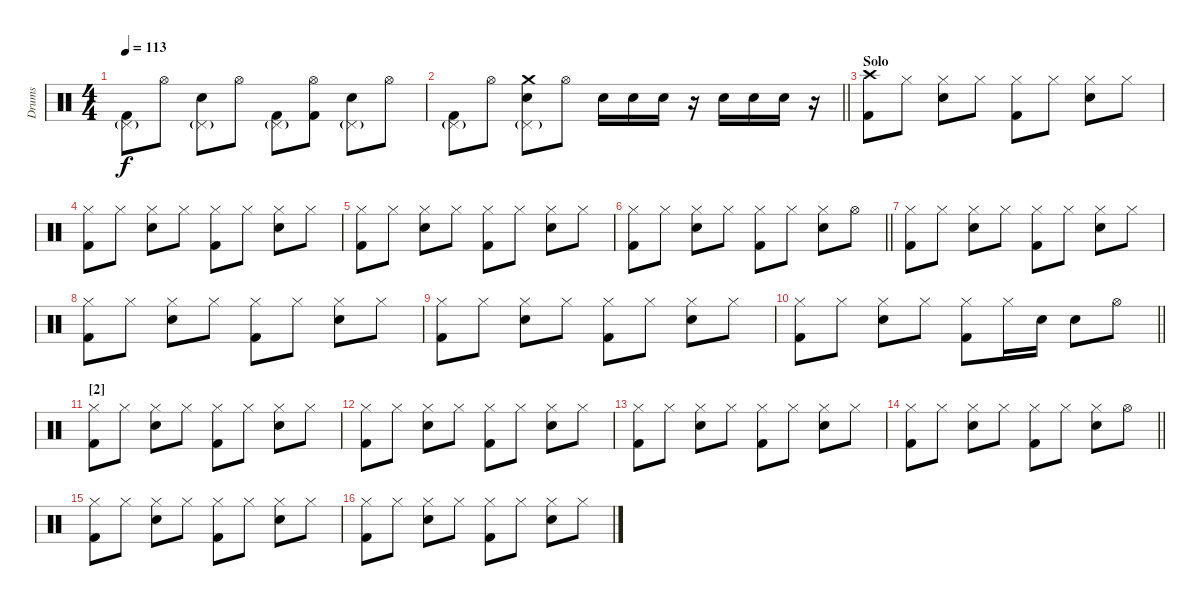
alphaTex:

\track ("Drums" "Drums") {instrument percussion}
\staff {score}
\articulation defaults
\ts (4 4)
\tempo 113
\clef neutral
\ks c
("Kick (hit) 2" "Pedal Hi-Hat (hit)"{g}).8{dy f} "Hi-Hat (open)".8 ("Electric Snare (hit)" "Pedal Hi-Hat (hit)"{g}).8 "Hi-Hat (open)".8 ("Kick (hit) 2" "Pedal Hi-Hat (hit)"{g}).8 ("Hi-Hat (open)" "Kick (hit) 2").8 ("Electric Snare (hit)" "Pedal Hi-Hat (hit)"{g}).8 "Hi-Hat (open)".8 |
\barLineRight lightlight
("Kick (hit) 2" "Pedal Hi-Hat (hit)"{g}).8 "Hi-Hat (open)".8 ("Crash medium (hit)" "Electric Snare (hit)" "Pedal Hi-Hat (hit)"{g}).8 "Hi-Hat (open)".8 "Electric Snare (hit)".16 "Electric Snare (hit)".16 "Electric Snare (hit)".16 r.16 "Electric Snare (hit)".16 "Electric Snare (hit)".16 "Electric Snare (hit)".16 r.16 |
\section ("" "Solo")
("Crash high (hit)" "Kick (hit) 2").8 "Hi-Hat (closed)".8 ("Hi-Hat (closed)" "Electric Snare (hit)").8 "Hi-Hat (closed)".8 ("Hi-Hat (closed)" "Kick (hit) 2").8 "Hi-Hat (closed)".8 ("Hi-Hat (closed)" "Electric Snare (hit)").8 "Hi-Hat (closed)".8 |
("Hi-Hat (closed)" "Kick (hit) 2").8 "Hi-Hat (closed)".8 ("Hi-Hat (closed)" "Electric Snare (hit)").8 "Hi-Hat (closed)".8 ("Hi-Hat (closed)" "Kick (hit) 2").8 "Hi-Hat (closed)".8 ("Hi-Hat (closed)" "Electric Snare (hit)").8 "Hi-Hat (closed)".8 |
("Hi-Hat (closed)" "Kick (hit) 2").8 "Hi-Hat (closed)".8 ("Hi-Hat (closed)" "Electric Snare (hit)").8 "Hi-Hat (closed)".8 ("Hi-Hat (closed)" "Kick (hit) 2").8 "Hi-Hat (closed)".8 ("Hi-Hat (closed)" "Electric Snare (hit)").8 "Hi-Hat (closed)".8 |
\barLineRight lightlight
("Hi-Hat (closed)" "Kick (hit) 2").8 "Hi-Hat (closed)".8 ("Hi-Hat (closed)" "Electric Snare (hit)").8 "Hi-Hat (closed)".8 ("Hi-Hat (closed)" "Kick (hit) 2").8 "Hi-Hat (closed)".8 ("Hi-Hat (closed)" "Electric Snare (hit)").8 "Hi-Hat (open)".8 |
\section ("" "")
("Hi-Hat (closed)" "Kick (hit) 2").8 "Hi-Hat (closed)".8 ("Hi-Hat (closed)" "Electric Snare (hit)").8 "Hi-Hat (closed)".8 ("Hi-Hat (closed)" "Kick (hit) 2").8 "Hi-Hat (closed)".8 ("Hi-Hat (closed)" "Electric Snare (hit)").8 "Hi-Hat (closed)".8 |
("Hi-Hat (closed)" "Kick (hit) 2").8 "Hi-Hat (closed)".8 ("Hi-Hat (closed)" "Electric Snare (hit)").8 "Hi-Hat (closed)".8 ("Hi-Hat (closed)" "Kick (hit) 2").8 "Hi-Hat (closed)".8 ("Hi-Hat (closed)" "Electric Snare (hit)").8 "Hi-Hat (closed)".8 |
("Hi-Hat (closed)" "Kick (hit) 2").8 "Hi-Hat (closed)".8 ("Hi-Hat (closed)" "Electric Snare (hit)").8 "Hi-Hat (closed)".8 ("Hi-Hat (closed)" "Kick (hit) 2").8 "Hi-Hat (closed)".8 ("Hi-Hat (closed)" "Electric Snare (hit)").8 "Hi-Hat (closed)".8 |
\barLineRight lightlight
("Hi-Hat (closed)" "Kick (hit) 2").8 "Hi-Hat (closed)".8 ("Hi-Hat (closed)" "Electric Snare (hit)").8 "Hi-Hat (closed)".8 ("Hi-Hat (closed)" "Kick (hit) 2").8 "Hi-Hat (closed)".16 "Electric Snare (hit)".16 "Electric Snare (hit)".8 "Hi-Hat (open)".8 |
\section ("" "[2]")
("Hi-Hat (closed)" "Kick (hit) 2").8 "Hi-Hat (closed)".8 ("Hi-Hat (closed)" "Electric Snare (hit)").8 "Hi-Hat (closed)".8 ("Hi-Hat (closed)" "Kick (hit) 2").8 "Hi-Hat (closed)".8 ("Hi-Hat (closed)" "Electric Snare (hit)").8 "Hi-Hat (closed)".8 |
("Hi-Hat (closed)" "Kick (hit) 2").8 "Hi-Hat (closed)".8 ("Hi-Hat (closed)" "Electric Snare (hit)").8 "Hi-Hat (closed)".8 ("Hi-Hat (closed)" "Kick (hit) 2").8 "Hi-Hat (closed)".8 ("Hi-Hat (closed)" "Electric Snare (hit)").8 "Hi-Hat (closed)".8 |
("Hi-Hat (closed)" "Kick (hit) 2").8 "Hi-Hat (closed)".8 ("Hi-Hat (closed)" "Electric Snare (hit)").8 "Hi-Hat (closed)".8 ("Hi-Hat (closed)" "Kick (hit) 2").8 "Hi-Hat (closed)".8 ("Hi-Hat (closed)" "Electric Snare (hit)").8 "Hi-Hat (closed)".8 |
\barLineRight lightlight
("Hi-Hat (closed)" "Kick (hit) 2").8 "Hi-Hat (closed)".8 ("Hi-Hat (closed)" "Electric Snare (hit)").8 "Hi-Hat (closed)".8 ("Hi-Hat (closed)" "Kick (hit) 2").8 "Hi-Hat (closed)".8 ("Hi-Hat (closed)" "Electric Snare (hit)").8 "Hi-Hat (open)".8 |
\section ("" "")
("Hi-Hat (closed)" "Kick (hit) 2").8 "Hi-Hat (closed)".8 ("Hi-Hat (closed)" "Electric Snare (hit)").8 "Hi-Hat (closed)".8 ("Hi-Hat (closed)" "Kick (hit) 2").8 "Hi-Hat (closed)".8 ("Hi-Hat (closed)" "Electric Snare (hit)").8 "Hi-Hat (closed)".8 |
("Hi-Hat (closed)" "Kick (hit) 2").8 "Hi-Hat (closed)".8 ("Hi-Hat (closed)" "Electric Snare (hit)").8 "Hi-Hat (closed)".8 ("Hi-Hat (closed)" "Kick (hit) 2").8 "Hi-Hat (closed)".8 ("Hi-Hat (closed)" "Electric Snare (hit)").8 "Hi-Hat (closed)".8
